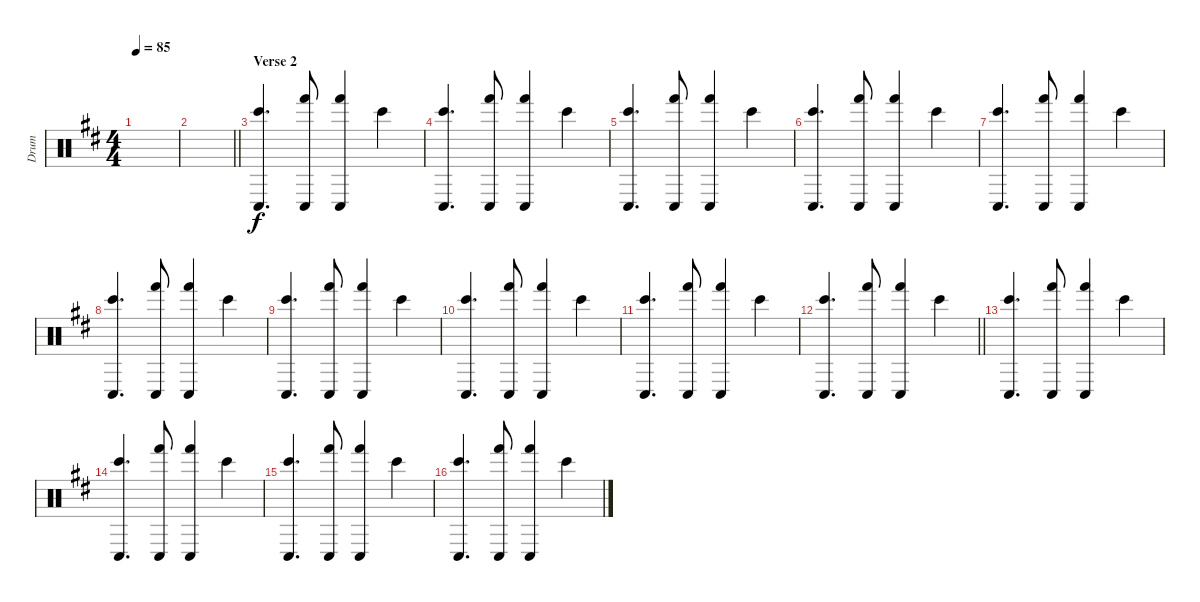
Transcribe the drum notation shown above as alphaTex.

\track ("Drum " "Drum ") {instrument percussion}
\staff {score}
\articulation defaults
\ts (4 4)
\tempo 85
\clef neutral
\ks d
|
\barLineRight lightlight
|
\section ("" "Verse 2")
("Conga low (hit)" "Bongo High (hit)").4{d} ("Conga low (hit)" "Hand (hit)").8 ("Conga low (hit)" "Hand (hit)").4 "Bongo High (hit)".4 |
("Conga low (hit)" "Bongo High (hit)").4{d} ("Conga low (hit)" "Hand (hit)").8 ("Conga low (hit)" "Hand (hit)").4 "Bongo High (hit)".4 |
("Conga low (hit)" "Bongo High (hit)").4{d} ("Conga low (hit)" "Hand (hit)").8 ("Conga low (hit)" "Hand (hit)").4 "Bongo High (hit)".4 |
("Conga low (hit)" "Bongo High (hit)").4{d} ("Conga low (hit)" "Hand (hit)").8 ("Conga low (hit)" "Hand (hit)").4 "Bongo High (hit)".4 |
("Conga low (hit)" "Bongo High (hit)").4{d} ("Conga low (hit)" "Hand (hit)").8 ("Conga low (hit)" "Hand (hit)").4 "Bongo High (hit)".4 |
("Conga low (hit)" "Bongo High (hit)").4{d} ("Conga low (hit)" "Hand (hit)").8 ("Conga low (hit)" "Hand (hit)").4 "Bongo High (hit)".4 |
("Conga low (hit)" "Bongo High (hit)").4{d} ("Conga low (hit)" "Hand (hit)").8 ("Conga low (hit)" "Hand (hit)").4 "Bongo High (hit)".4 |
("Conga low (hit)" "Bongo High (hit)").4{d} ("Conga low (hit)" "Hand (hit)").8 ("Conga low (hit)" "Hand (hit)").4 "Bongo High (hit)".4 |
("Conga low (hit)" "Bongo High (hit)").4{d} ("Conga low (hit)" "Hand (hit)").8 ("Conga low (hit)" "Hand (hit)").4 "Bongo High (hit)".4 |
\barLineRight lightlight
("Conga low (hit)" "Bongo High (hit)").4{d} ("Conga low (hit)" "Hand (hit)").8 ("Conga low (hit)" "Hand (hit)").4 "Bongo High (hit)".4 |
\section ("" "")
("Conga low (hit)" "Bongo High (hit)").4{d} ("Conga low (hit)" "Hand (hit)").8 ("Conga low (hit)" "Hand (hit)").4 "Bongo High (hit)".4 |
("Conga low (hit)" "Bongo High (hit)").4{d} ("Conga low (hit)" "Hand (hit)").8 ("Conga low (hit)" "Hand (hit)").4 "Bongo High (hit)".4 |
("Conga low (hit)" "Bongo High (hit)").4{d} ("Conga low (hit)" "Hand (hit)").8 ("Conga low (hit)" "Hand (hit)").4 "Bongo High (hit)".4 |
("Conga low (hit)" "Bongo High (hit)").4{d} ("Conga low (hit)" "Hand (hit)").8 ("Conga low (hit)" "Hand (hit)").4 "Bongo High (hit)".4
